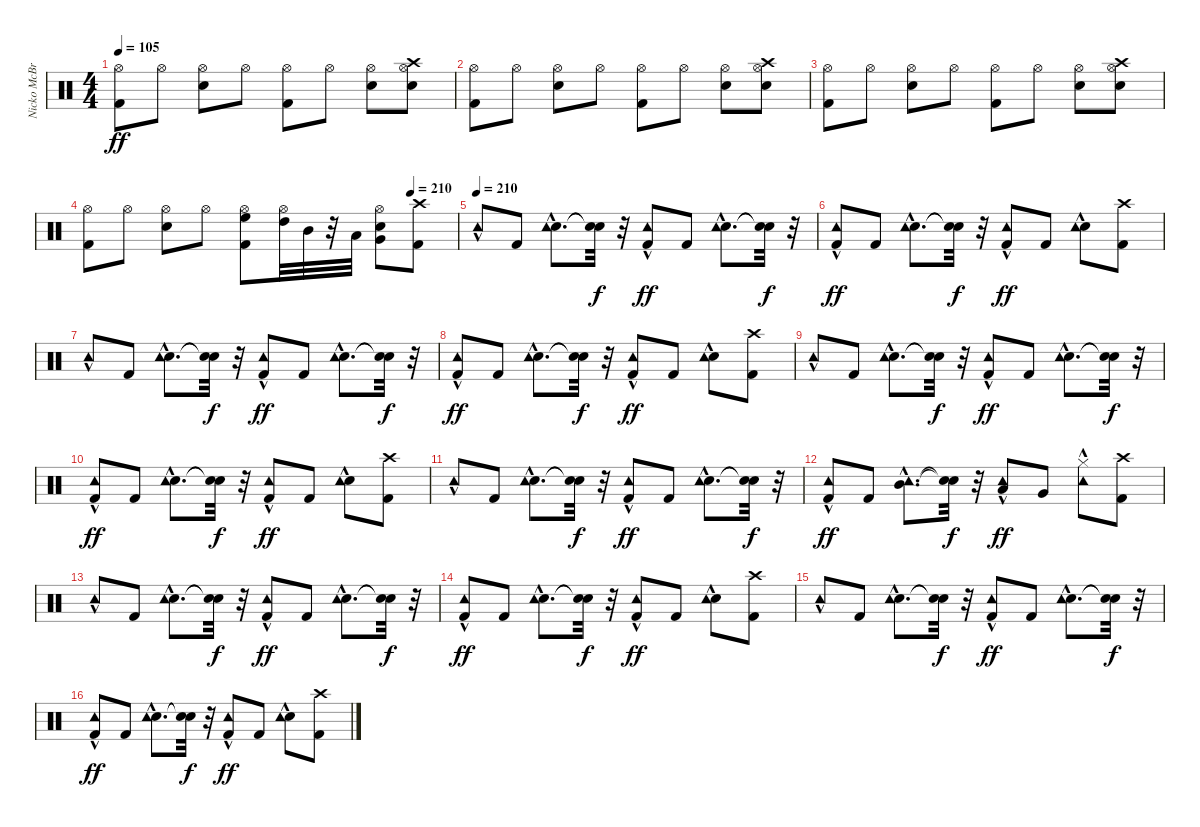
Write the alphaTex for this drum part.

\track ("Nicko McBrain" "Nicko McBr") {instrument percussion}
\staff {score}
\articulation defaults
\ts (4 4)
\tempo 105
\clef neutral
\ks c
("Kick (hit) 2" "Hi-Hat (open)").8{dy ff} "Hi-Hat (open)".8 ("Snare (hit) 2" "Hi-Hat (open)").8 "Hi-Hat (open)".8 ("Kick (hit) 2" "Hi-Hat (open)").8 "Hi-Hat (open)".8 ("Snare (hit) 2" "Hi-Hat (open)").8 ("Snare (hit) 2" "Hi-Hat (open)" "Crash high (hit)").8 |
("Kick (hit) 2" "Hi-Hat (open)").8 "Hi-Hat (open)".8 ("Snare (hit) 2" "Hi-Hat (open)").8 "Hi-Hat (open)".8 ("Kick (hit) 2" "Hi-Hat (open)").8 "Hi-Hat (open)".8 ("Snare (hit) 2" "Hi-Hat (open)").8 ("Snare (hit) 2" "Hi-Hat (open)" "Crash high (hit)").8 |
("Kick (hit) 2" "Hi-Hat (open)").8 "Hi-Hat (open)".8 ("Snare (hit) 2" "Hi-Hat (open)").8 "Hi-Hat (open)".8 ("Kick (hit) 2" "Hi-Hat (open)").8 "Hi-Hat (open)".8 ("Snare (hit) 2" "Hi-Hat (open)").8 ("Snare (hit) 2" "Hi-Hat (open)" "Crash high (hit)").8 |
\tempo (210 0.875)
("Kick (hit) 2" "Hi-Hat (open)").8 "Hi-Hat (open)".8 ("Snare (hit) 2" "Hi-Hat (open)").8 "Hi-Hat (open)".8 ("Kick (hit) 2" "Hi-Hat (open)" "High Floor Tom (hit)").8 ("Hi-Hat (open)" "High Tom (hit)").32 "Mid Tom (hit)".32 r.32 "Low Tom (hit)".32 ("Snare (hit) 2" "Very Low Tom (hit)" "Hi-Hat (open)").8 ("Kick (hit) 2" "Crash high (hit)").8 |
\tempo (210)
"Tambourine (hit)"{hac}.8 "Kick (hit) 2".8 ("Snare (hit) 2"{hac} "Tambourine (hit)"{hac}).8{d} ("Snare (hit)"{t} "Snare (hit)"{t}).32{dy f} r.32 ("Kick (hit) 2" "Tambourine (hit)"{hac}).8{dy ff} "Kick (hit) 2".8 ("Snare (hit) 2"{hac} "Tambourine (hit)"{hac}).8{d} ("Snare (hit)"{t} "Snare (hit)"{t}).32{dy f} r.32 |
("Kick (hit) 2" "Tambourine (hit)"{hac}).8{dy ff} "Kick (hit) 2".8 ("Snare (hit) 2"{hac} "Tambourine (hit)"{hac}).8{d} ("Snare (hit)"{t} "Snare (hit)"{t}).32{dy f} r.32 ("Kick (hit) 2" "Tambourine (hit)"{hac}).8{dy ff} "Kick (hit) 2".8 ("Snare (hit) 2" "Tambourine (hit)"{hac}).8 ("Kick (hit) 2" "Crash high (hit)").8 |
"Tambourine (hit)"{hac}.8 "Kick (hit) 2".8 ("Snare (hit) 2"{hac} "Tambourine (hit)"{hac}).8{d} ("Snare (hit)"{t} "Snare (hit)"{t}).32{dy f} r.32 ("Kick (hit) 2" "Tambourine (hit)"{hac}).8{dy ff} "Kick (hit) 2".8 ("Snare (hit) 2"{hac} "Tambourine (hit)"{hac}).8{d} ("Snare (hit)"{t} "Snare (hit)"{t}).32{dy f} r.32 |
("Kick (hit) 2" "Tambourine (hit)"{hac}).8{dy ff} "Kick (hit) 2".8 ("Snare (hit) 2"{hac} "Tambourine (hit)"{hac}).8{d} ("Snare (hit)"{t} "Snare (hit)"{t}).32{dy f} r.32 ("Kick (hit) 2" "Tambourine (hit)"{hac}).8{dy ff} "Kick (hit) 2".8 ("Snare (hit) 2" "Tambourine (hit)"{hac}).8 ("Kick (hit) 2" "Crash high (hit)").8 |
"Tambourine (hit)"{hac}.8 "Kick (hit) 2".8 ("Snare (hit) 2"{hac} "Tambourine (hit)"{hac}).8{d} ("Snare (hit)"{t} "Snare (hit)"{t}).32{dy f} r.32 ("Kick (hit) 2" "Tambourine (hit)"{hac}).8{dy ff} "Kick (hit) 2".8 ("Snare (hit) 2"{hac} "Tambourine (hit)"{hac}).8{d} ("Snare (hit)"{t} "Snare (hit)"{t}).32{dy f} r.32 |
("Kick (hit) 2" "Tambourine (hit)"{hac}).8{dy ff} "Kick (hit) 2".8 ("Snare (hit) 2"{hac} "Tambourine (hit)"{hac}).8{d} ("Snare (hit)"{t} "Snare (hit)"{t}).32{dy f} r.32 ("Kick (hit) 2" "Tambourine (hit)"{hac}).8{dy ff} "Kick (hit) 2".8 ("Snare (hit) 2" "Tambourine (hit)"{hac}).8 ("Kick (hit) 2" "Crash high (hit)").8 |
"Tambourine (hit)"{hac}.8 "Kick (hit) 2".8 ("Snare (hit) 2"{hac} "Tambourine (hit)"{hac}).8{d} ("Snare (hit)"{t} "Snare (hit)"{t}).32{dy f} r.32 ("Kick (hit) 2" "Tambourine (hit)"{hac}).8{dy ff} "Kick (hit) 2".8 ("Snare (hit) 2"{hac} "Tambourine (hit)"{hac}).8{d} ("Snare (hit)"{t} "Snare (hit)"{t}).32{dy f} r.32 |
("Kick (hit) 2" "Tambourine (hit)"{hac}).8{dy ff} "Kick (hit) 2".8 ("Mid Tom (hit)"{hac} "Tambourine (hit)"{hac}).8{d} ("Snare (hit)"{t} "Snare (hit)"{t}).32{dy f} r.32 ("Low Tom (hit)" "Tambourine (hit)"{hac}).8{dy ff} "Very Low Tom (hit)".8 ("Hi-Hat (closed)" "Tambourine (hit)"{hac}).8 ("Kick (hit) 2" "Crash high (hit)").8 |
"Tambourine (hit)"{hac}.8 "Kick (hit) 2".8 ("Snare (hit) 2"{hac} "Tambourine (hit)"{hac}).8{d} ("Snare (hit)"{t} "Snare (hit)"{t}).32{dy f} r.32 ("Kick (hit) 2" "Tambourine (hit)"{hac}).8{dy ff} "Kick (hit) 2".8 ("Snare (hit) 2"{hac} "Tambourine (hit)"{hac}).8{d} ("Snare (hit)"{t} "Snare (hit)"{t}).32{dy f} r.32 |
("Kick (hit) 2" "Tambourine (hit)"{hac}).8{dy ff} "Kick (hit) 2".8 ("Snare (hit) 2"{hac} "Tambourine (hit)"{hac}).8{d} ("Snare (hit)"{t} "Snare (hit)"{t}).32{dy f} r.32 ("Kick (hit) 2" "Tambourine (hit)"{hac}).8{dy ff} "Kick (hit) 2".8 ("Snare (hit) 2" "Tambourine (hit)"{hac}).8 ("Kick (hit) 2" "Crash high (hit)").8 |
"Tambourine (hit)"{hac}.8 "Kick (hit) 2".8 ("Snare (hit) 2"{hac} "Tambourine (hit)"{hac}).8{d} ("Snare (hit)"{t} "Snare (hit)"{t}).32{dy f} r.32 ("Kick (hit) 2" "Tambourine (hit)"{hac}).8{dy ff} "Kick (hit) 2".8 ("Snare (hit) 2"{hac} "Tambourine (hit)"{hac}).8{d} ("Snare (hit)"{t} "Snare (hit)"{t}).32{dy f} r.32 |
("Kick (hit) 2" "Tambourine (hit)"{hac}).8{dy ff} "Kick (hit) 2".8 ("Snare (hit) 2"{hac} "Tambourine (hit)"{hac}).8{d} ("Snare (hit)"{t} "Snare (hit)"{t}).32{dy f} r.32 ("Kick (hit) 2" "Tambourine (hit)"{hac}).8{dy ff} "Kick (hit) 2".8 ("Snare (hit) 2" "Tambourine (hit)"{hac}).8 ("Kick (hit) 2" "Crash high (hit)").8
